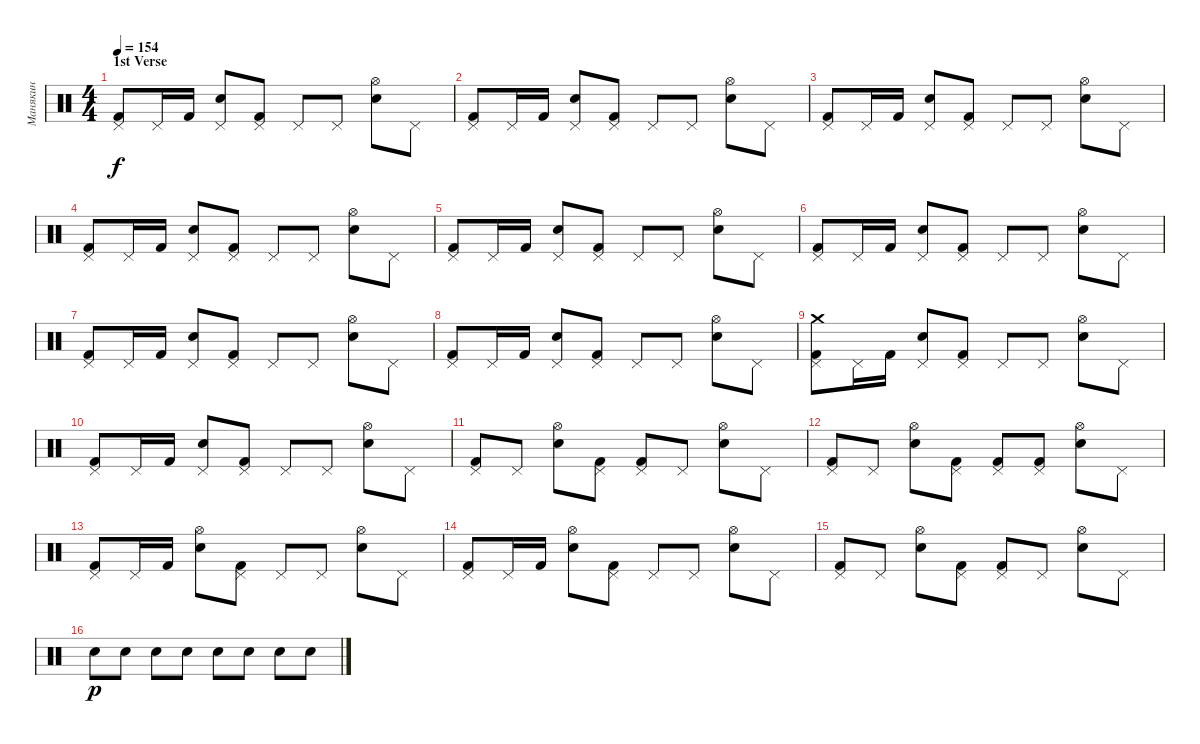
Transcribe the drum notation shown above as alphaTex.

\track ("Манякин" "Манякин") {instrument percussion}
\staff {score}
\articulation defaults
\ts (4 4)
\section ("" "1st Verse")
\tempo 154
\clef neutral
\ks c
("Pedal Hi-Hat (hit)" "Kick (hit) 2").8{dy f} "Pedal Hi-Hat (hit)".16 "Kick (hit) 2".16 ("Pedal Hi-Hat (hit)" "Electric Snare (hit)").8 ("Pedal Hi-Hat (hit)" "Kick (hit) 2").8 "Pedal Hi-Hat (hit)".8 "Pedal Hi-Hat (hit)".8 ("Hi-Hat (open)" "Electric Snare (hit)").8 "Pedal Hi-Hat (hit)".8 |
("Pedal Hi-Hat (hit)" "Kick (hit) 2").8 "Pedal Hi-Hat (hit)".16 "Kick (hit) 2".16 ("Pedal Hi-Hat (hit)" "Electric Snare (hit)").8 ("Pedal Hi-Hat (hit)" "Kick (hit) 2").8 "Pedal Hi-Hat (hit)".8 "Pedal Hi-Hat (hit)".8 ("Hi-Hat (open)" "Electric Snare (hit)").8 "Pedal Hi-Hat (hit)".8 |
("Pedal Hi-Hat (hit)" "Kick (hit) 2").8 "Pedal Hi-Hat (hit)".16 "Kick (hit) 2".16 ("Pedal Hi-Hat (hit)" "Electric Snare (hit)").8 ("Pedal Hi-Hat (hit)" "Kick (hit) 2").8 "Pedal Hi-Hat (hit)".8 "Pedal Hi-Hat (hit)".8 ("Hi-Hat (open)" "Electric Snare (hit)").8 "Pedal Hi-Hat (hit)".8 |
("Pedal Hi-Hat (hit)" "Kick (hit) 2").8 "Pedal Hi-Hat (hit)".16 "Kick (hit) 2".16 ("Pedal Hi-Hat (hit)" "Electric Snare (hit)").8 ("Pedal Hi-Hat (hit)" "Kick (hit) 2").8 "Pedal Hi-Hat (hit)".8 "Pedal Hi-Hat (hit)".8 ("Hi-Hat (open)" "Electric Snare (hit)").8 "Pedal Hi-Hat (hit)".8 |
("Pedal Hi-Hat (hit)" "Kick (hit) 2").8 "Pedal Hi-Hat (hit)".16 "Kick (hit) 2".16 ("Pedal Hi-Hat (hit)" "Electric Snare (hit)").8 ("Pedal Hi-Hat (hit)" "Kick (hit) 2").8 "Pedal Hi-Hat (hit)".8 "Pedal Hi-Hat (hit)".8 ("Hi-Hat (open)" "Electric Snare (hit)").8 "Pedal Hi-Hat (hit)".8 |
("Pedal Hi-Hat (hit)" "Kick (hit) 2").8 "Pedal Hi-Hat (hit)".16 "Kick (hit) 2".16 ("Pedal Hi-Hat (hit)" "Electric Snare (hit)").8 ("Pedal Hi-Hat (hit)" "Kick (hit) 2").8 "Pedal Hi-Hat (hit)".8 "Pedal Hi-Hat (hit)".8 ("Hi-Hat (open)" "Electric Snare (hit)").8 "Pedal Hi-Hat (hit)".8 |
("Pedal Hi-Hat (hit)" "Kick (hit) 2").8 "Pedal Hi-Hat (hit)".16 "Kick (hit) 2".16 ("Pedal Hi-Hat (hit)" "Electric Snare (hit)").8 ("Pedal Hi-Hat (hit)" "Kick (hit) 2").8 "Pedal Hi-Hat (hit)".8 "Pedal Hi-Hat (hit)".8 ("Hi-Hat (open)" "Electric Snare (hit)").8 "Pedal Hi-Hat (hit)".8 |
("Pedal Hi-Hat (hit)" "Kick (hit) 2").8 "Pedal Hi-Hat (hit)".16 "Kick (hit) 2".16 ("Pedal Hi-Hat (hit)" "Electric Snare (hit)").8 ("Pedal Hi-Hat (hit)" "Kick (hit) 2").8 "Pedal Hi-Hat (hit)".8 "Pedal Hi-Hat (hit)".8 ("Hi-Hat (open)" "Electric Snare (hit)").8 "Pedal Hi-Hat (hit)".8 |
("Crash medium (hit)" "Pedal Hi-Hat (hit)" "Kick (hit) 2").8 "Pedal Hi-Hat (hit)".16 "Kick (hit) 2".16 ("Pedal Hi-Hat (hit)" "Electric Snare (hit)").8 ("Pedal Hi-Hat (hit)" "Kick (hit) 2").8 "Pedal Hi-Hat (hit)".8 "Pedal Hi-Hat (hit)".8 ("Hi-Hat (open)" "Electric Snare (hit)").8 "Pedal Hi-Hat (hit)".8 |
("Pedal Hi-Hat (hit)" "Kick (hit) 2").8 "Pedal Hi-Hat (hit)".16 "Kick (hit) 2".16 ("Pedal Hi-Hat (hit)" "Electric Snare (hit)").8 ("Pedal Hi-Hat (hit)" "Kick (hit) 2").8 "Pedal Hi-Hat (hit)".8 "Pedal Hi-Hat (hit)".8 ("Hi-Hat (open)" "Electric Snare (hit)").8 "Pedal Hi-Hat (hit)".8 |
("Pedal Hi-Hat (hit)" "Kick (hit) 2").8 "Pedal Hi-Hat (hit)".8 ("Hi-Hat (open)" "Electric Snare (hit)").8 ("Pedal Hi-Hat (hit)" "Kick (hit) 2").8 ("Pedal Hi-Hat (hit)" "Kick (hit) 2").8 "Pedal Hi-Hat (hit)".8 ("Hi-Hat (open)" "Electric Snare (hit)").8 "Pedal Hi-Hat (hit)".8 |
("Pedal Hi-Hat (hit)" "Kick (hit) 2").8 "Pedal Hi-Hat (hit)".8 ("Hi-Hat (open)" "Electric Snare (hit)").8 ("Pedal Hi-Hat (hit)" "Kick (hit) 2").8 ("Pedal Hi-Hat (hit)" "Kick (hit) 2").8 ("Pedal Hi-Hat (hit)" "Kick (hit) 2").8 ("Hi-Hat (open)" "Electric Snare (hit)").8 "Pedal Hi-Hat (hit)".8 |
("Pedal Hi-Hat (hit)" "Kick (hit) 2").8 "Pedal Hi-Hat (hit)".16 "Kick (hit) 2".16 ("Hi-Hat (open)" "Electric Snare (hit)").8 ("Pedal Hi-Hat (hit)" "Kick (hit) 2").8 "Pedal Hi-Hat (hit)".8 "Pedal Hi-Hat (hit)".8 ("Hi-Hat (open)" "Electric Snare (hit)").8 "Pedal Hi-Hat (hit)".8 |
("Pedal Hi-Hat (hit)" "Kick (hit) 2").8 "Pedal Hi-Hat (hit)".16 "Kick (hit) 2".16 ("Hi-Hat (open)" "Electric Snare (hit)").8 ("Pedal Hi-Hat (hit)" "Kick (hit) 2").8 "Pedal Hi-Hat (hit)".8 "Pedal Hi-Hat (hit)".8 ("Hi-Hat (open)" "Electric Snare (hit)").8 "Pedal Hi-Hat (hit)".8 |
("Pedal Hi-Hat (hit)" "Kick (hit) 2").8 "Pedal Hi-Hat (hit)".8 ("Hi-Hat (open)" "Electric Snare (hit)").8 ("Pedal Hi-Hat (hit)" "Kick (hit) 2").8 ("Pedal Hi-Hat (hit)" "Kick (hit) 2").8 "Pedal Hi-Hat (hit)".8 ("Hi-Hat (open)" "Electric Snare (hit)").8 "Pedal Hi-Hat (hit)".8 |
"Electric Snare (hit)".8{dy p} "Electric Snare (hit)".8 "Electric Snare (hit)".8 "Electric Snare (hit)".8 "Electric Snare (hit)".8 "Electric Snare (hit)".8 "Electric Snare (hit)".8 "Electric Snare (hit)".8
